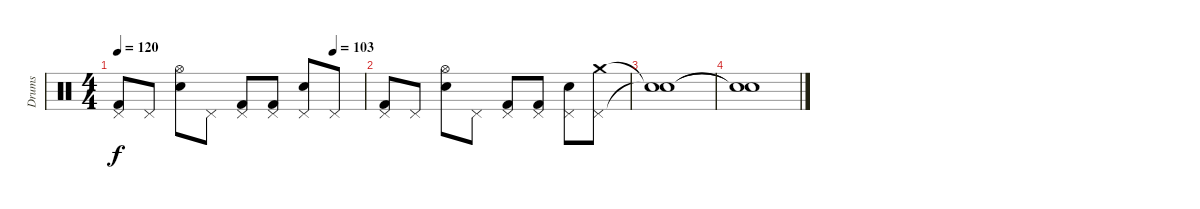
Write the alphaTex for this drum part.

\track ("Drums" "Drums") {instrument percussion}
\staff {score}
\articulation defaults
\ts (4 4)
\tempo 120
\tempo (103 0.875)
\clef neutral
\ks c
("Pedal Hi-Hat (hit)" "Kick (hit) 2").8{dy f} "Pedal Hi-Hat (hit)".8 ("Hi-Hat (open)" "Snare (hit) 2").8 "Pedal Hi-Hat (hit)".8 ("Pedal Hi-Hat (hit)" "Kick (hit) 2").8 ("Pedal Hi-Hat (hit)" "Kick (hit) 2").8 ("Pedal Hi-Hat (hit)" "Snare (hit) 2").8 "Pedal Hi-Hat (hit)".8 |
("Pedal Hi-Hat (hit)" "Kick (hit) 2").8 "Pedal Hi-Hat (hit)".8 ("Hi-Hat (open)" "Snare (hit) 2").8 "Pedal Hi-Hat (hit)".8 ("Pedal Hi-Hat (hit)" "Kick (hit) 2").8 ("Pedal Hi-Hat (hit)" "Kick (hit) 2").8 ("Pedal Hi-Hat (hit)" "Snare (hit) 2").8 ("Pedal Hi-Hat (hit)" "Crash medium (hit)").8 |
("Snare (hit)"{t} "Snare (hit)"{t}).1 |
("Snare (hit)"{t} "Snare (hit)"{t}).1
